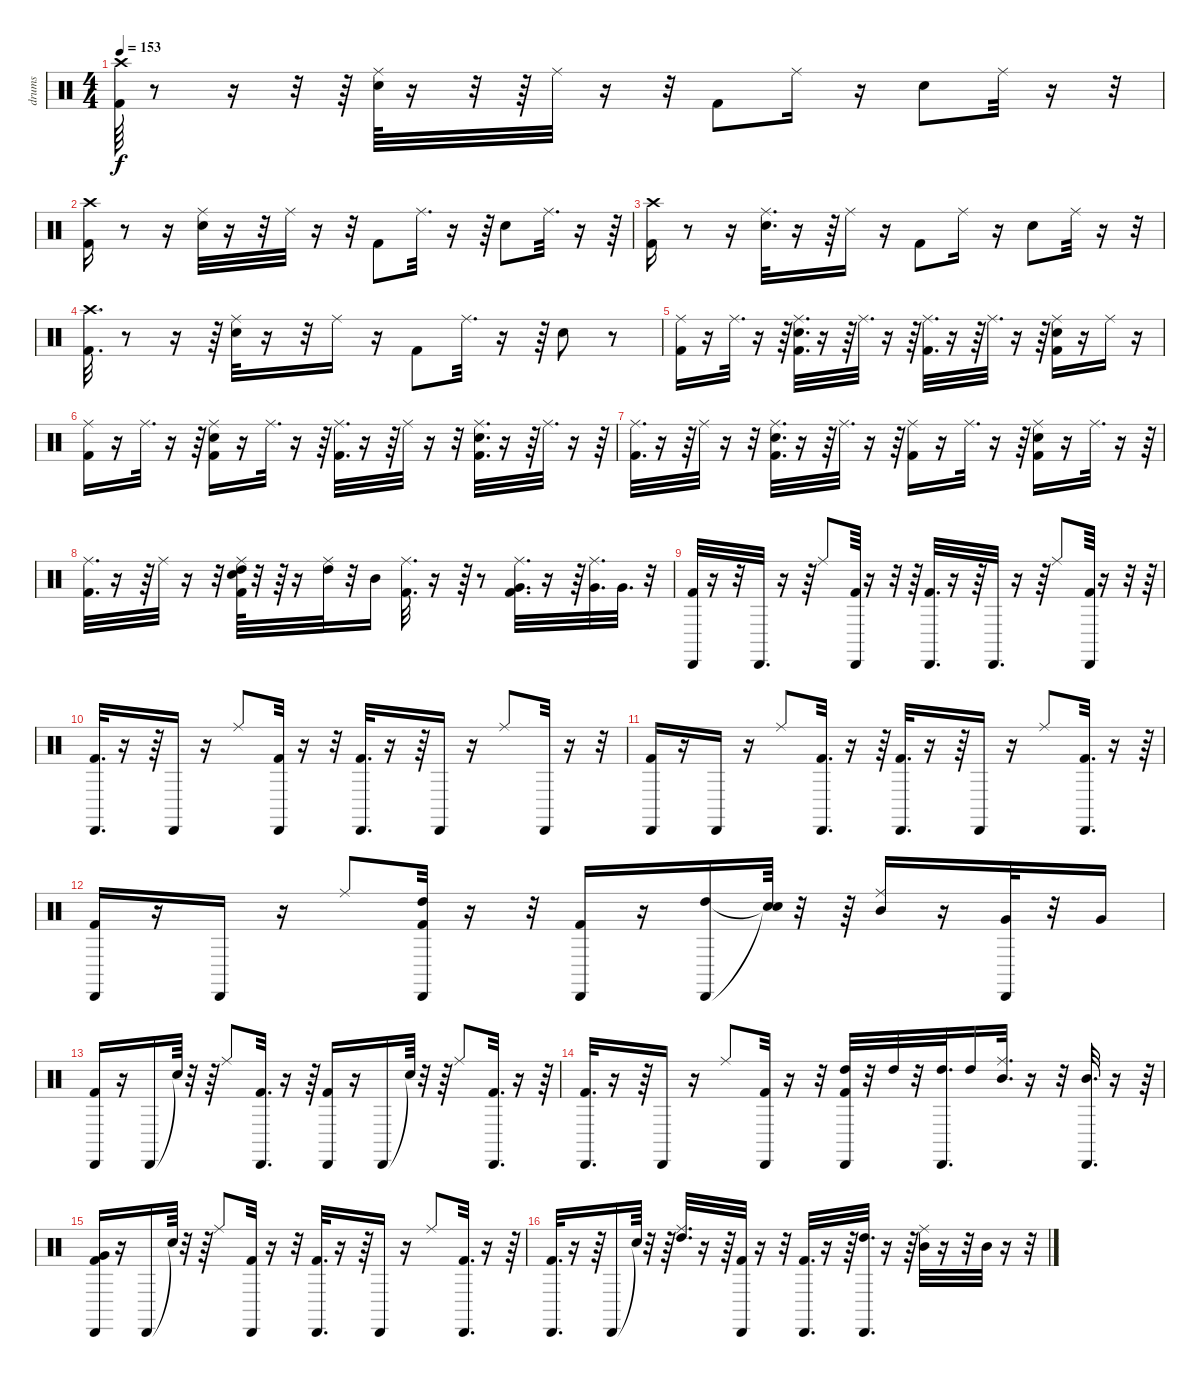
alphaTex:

\track ("drums" "drums") {instrument percussion}
\staff {score}
\articulation defaults
\ts (4 4)
\tempo 153
\clef neutral
\ks c
("Crash high (hit)" "Kick (hit) 2").64{dy f} r.8 r.16 r.32 r.64 ("Ride (middle)" "Snare (hit) 2").64 r.16 r.32 r.64 "Ride (middle)".32 r.16 r.32 "Kick (hit) 2".8 "Ride (middle)".16 r.16 "Snare (hit) 2".8 "Ride (middle)".32 r.16 r.32 |
("Crash high (hit)" "Kick (hit) 2").16 r.8 r.16 ("Ride (middle)" "Snare (hit) 2").32 r.16 r.32 "Ride (middle)".32 r.16 r.32 "Kick (hit) 2".8 "Ride (middle)".32{d} r.16 r.64 "Snare (hit) 2".8 "Ride (middle)".32{d} r.16 r.64 |
("Crash high (hit)" "Kick (hit) 2").16 r.8 r.16 ("Ride (middle)" "Snare (hit) 2").32{d} r.16 r.64 "Ride (middle)".16 r.16 "Kick (hit) 2".8 "Ride (middle)".16 r.16 "Snare (hit) 2".8 "Ride (middle)".32 r.16 r.32 |
("Crash high (hit)" "Kick (hit) 2").32{d} r.8 r.16 r.64 ("Ride (middle)" "Snare (hit) 2").32 r.16 r.32 "Ride (middle)".16 r.16 "Kick (hit) 2".8 "Ride (middle)".32{d} r.16 r.64 "Snare (hit) 2".8 r.8 |
("Ride (middle)" "Kick (hit) 2").16 r.16 "Ride (middle)".32{d} r.16 r.64 ("Ride (middle)" "Snare (hit) 2" "Kick (hit) 2").32{d} r.16 r.64 "Ride (middle)".32{d} r.16 r.64 ("Ride (middle)" "Kick (hit) 2").32{d} r.16 r.64 "Ride (middle)".32{d} r.16 r.64 ("Ride (middle)" "Snare (hit) 2" "Kick (hit) 2").16 r.16 "Ride (middle)".16 r.16 |
("Ride (middle)" "Kick (hit) 2").16 r.16 "Ride (middle)".32{d} r.16 r.64 ("Ride (middle)" "Snare (hit) 2" "Kick (hit) 2").16 r.16 "Ride (middle)".32{d} r.16 r.64 ("Ride (middle)" "Kick (hit) 2").32{d} r.16 r.64 "Ride (middle)".32 r.16 r.32 ("Ride (middle)" "Snare (hit) 2" "Kick (hit) 2").32{d} r.16 r.64 "Ride (middle)".32{d} r.16 r.64 |
("Ride (middle)" "Kick (hit) 2").32{d} r.16 r.64 "Ride (middle)".32 r.16 r.32 ("Ride (middle)" "Snare (hit) 2" "Kick (hit) 2").32{d} r.16 r.64 "Ride (middle)".32{d} r.16 r.64 ("Ride (middle)" "Kick (hit) 2").16 r.16 "Ride (middle)".32{d} r.16 r.64 ("Ride (middle)" "Snare (hit) 2" "Kick (hit) 2").16 r.16 "Ride (middle)".32{d} r.16 r.64 |
("Ride (middle)" "Kick (hit) 2").32{d} r.16 r.64 "Ride (middle)".32 r.16 r.32 ("Ride (middle)" "High Tom (hit)" "Snare (hit) 2" "Kick (hit) 2").64 r.32 r.64 r.16 ("Ride (middle)" "High Tom (hit)").32 r.32 "Mid Tom (hit)".16 ("Ride (middle)" "Kick (hit) 2").32{d} r.16 r.64 r.8 ("Ride (middle)" "Very Low Tom (hit)" "Kick (hit) 2").32{d} r.16 r.64 ("Ride (middle)" "Very Low Tom (hit)").32{d} "Very Low Tom (hit)".32{d} r.32 |
("Cabasa (hit)" "Kick (hit) 2").32 r.16 r.32 "Cabasa (hit)".32{d} r.16 r.64 "Ride (middle)".8 ("Cabasa (hit)" "Kick (hit) 2").64 r.16 r.32 r.64 ("Cabasa (hit)" "Kick (hit) 2").32{d} r.16 r.64 "Cabasa (hit)".32{d} r.16 r.64 "Ride (middle)".8 ("Cabasa (hit)" "Kick (hit) 2").64 r.16 r.32 r.64 |
("Cabasa (hit)" "Kick (hit) 2").32{d} r.16 r.64 "Cabasa (hit)".16 r.16 "Ride (middle)".8 ("Cabasa (hit)" "Kick (hit) 2").32 r.16 r.32 ("Cabasa (hit)" "Kick (hit) 2").32{d} r.16 r.64 "Cabasa (hit)".16 r.16 "Ride (middle)".8 "Cabasa (hit)".32 r.16 r.32 |
("Cabasa (hit)" "Kick (hit) 2").16 r.16 "Cabasa (hit)".16 r.16 "Ride (middle)".8 ("Cabasa (hit)" "Kick (hit) 2").32{d} r.16 r.64 ("Cabasa (hit)" "Kick (hit) 2").32{d} r.16 r.64 "Cabasa (hit)".16 r.16 "Ride (middle)".8 ("Cabasa (hit)" "Kick (hit) 2").32{d} r.16 r.64 |
("Cabasa (hit)" "Kick (hit) 2").16 r.16 "Cabasa (hit)".16 r.16 "Ride (middle)".8 ("Cabasa (hit)" "High Tom (hit)" "Kick (hit) 2").32 r.16 r.32 ("Cabasa (hit)" "Kick (hit) 2").16 r.16 ("Cabasa (hit)" "High Tom (hit)").16 ("Snare (hit)"{t} "Snare (hit)"{t}).64 r.32 r.64 ("Ride (middle)" "Mid Tom (hit)").16 r.16 ("Cabasa (hit)" "Very Low Tom (hit)").32 r.32 "Very Low Tom (hit)".16 |
("Cabasa (hit)" "Kick (hit) 2").16 r.16 "Cabasa (hit)".16 "Snare (hit)"{t}.64 r.32 r.64 "Ride (middle)".8 ("Cabasa (hit)" "Kick (hit) 2").32{d} r.16 r.64 ("Cabasa (hit)" "Kick (hit) 2").16 r.16 "Cabasa (hit)".16 "Snare (hit)"{t}.64 r.32 r.64 "Ride (middle)".8 ("Cabasa (hit)" "Kick (hit) 2").32{d} r.16 r.64 |
("Cabasa (hit)" "Kick (hit) 2").32{d} r.16 r.64 "Cabasa (hit)".16 r.16 "Ride (middle)".8 ("Cabasa (hit)" "Kick (hit) 2").32 r.16 r.32 ("Cabasa (hit)" "High Tom (hit)" "Kick (hit) 2").32 r.32 "High Tom (hit)".32 r.32 ("Cabasa (hit)" "High Tom (hit)").32{d} "High Tom (hit)".16 ("Ride (middle)" "Mid Tom (hit)").32{d} r.16 r.32 ("Cabasa (hit)" "Mid Tom (hit)").32{d} r.16 r.64 |
("Cabasa (hit)" "Very Low Tom (hit)" "Kick (hit) 2").16 r.16 "Cabasa (hit)".16 "Snare (hit)"{t}.64 r.32 r.64 "Ride (middle)".8 ("Cabasa (hit)" "Kick (hit) 2").32 r.16 r.32 ("Cabasa (hit)" "Kick (hit) 2").32{d} r.16 r.64 "Cabasa (hit)".16 r.16 "Ride (middle)".8 ("Cabasa (hit)" "Kick (hit) 2").32{d} r.16 r.64 |
("Cabasa (hit)" "Kick (hit) 2").32{d} r.16 r.64 "Cabasa (hit)".16 "Snare (hit)"{t}.64 r.32 r.64 ("Ride (middle)" "High Tom (hit)").32{d} r.16 r.64 ("Cabasa (hit)" "Kick (hit) 2").32 r.16 r.32 ("Cabasa (hit)" "Kick (hit) 2").32{d} r.16 r.64 ("Cabasa (hit)" "High Tom (hit)").32{d} r.16 r.64 ("Ride (middle)" "Mid Tom (hit)").32 r.16 r.32 "Mid Tom (hit)".32 r.16 r.32
